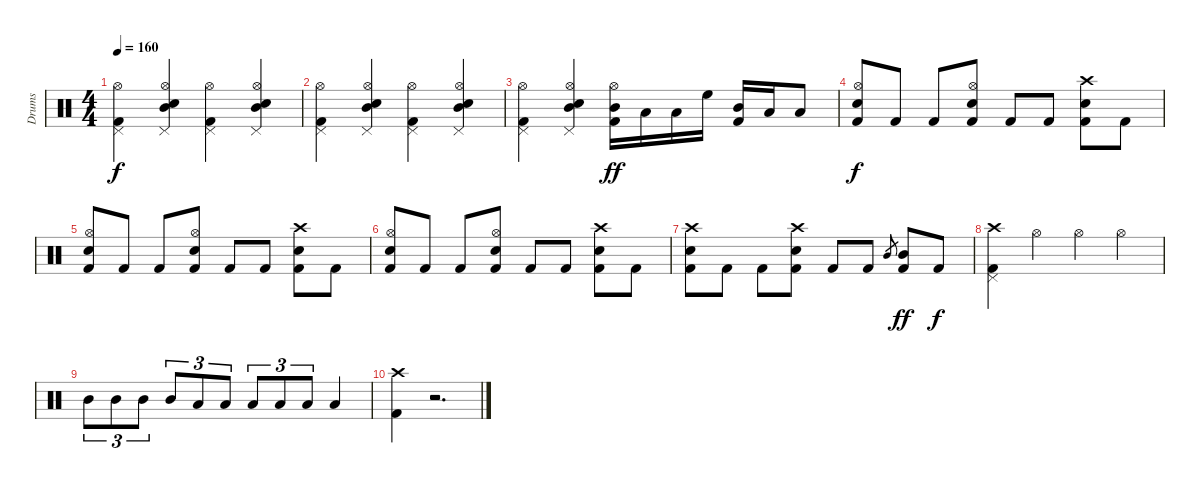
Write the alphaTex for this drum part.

\track ("Drums" "Drums") {instrument percussion}
\staff {score}
\articulation defaults
\ts (4 4)
\tempo 160
\clef neutral
\ks c
("Kick (hit) 2" "Pedal Hi-Hat (hit)" "Hi-Hat (open)").4{dy f} ("Snare (hit) 2" "Pedal Hi-Hat (hit)" "Mid Tom (hit)" "Hi-Hat (open)").4 ("Kick (hit) 2" "Pedal Hi-Hat (hit)" "Hi-Hat (open)").4 ("Snare (hit) 2" "Pedal Hi-Hat (hit)" "Mid Tom (hit)" "Hi-Hat (open)").4 |
("Kick (hit) 2" "Pedal Hi-Hat (hit)" "Hi-Hat (open)").4 ("Snare (hit) 2" "Pedal Hi-Hat (hit)" "Mid Tom (hit)" "Hi-Hat (open)").4 ("Kick (hit) 2" "Pedal Hi-Hat (hit)" "Hi-Hat (open)").4 ("Snare (hit) 2" "Pedal Hi-Hat (hit)" "Mid Tom (hit)" "Hi-Hat (open)").4 |
("Kick (hit) 2" "Pedal Hi-Hat (hit)" "Hi-Hat (open)").4 ("Snare (hit) 2" "Pedal Hi-Hat (hit)" "Mid Tom (hit)" "Hi-Hat (open)").4 ("Kick (hit) 2" "Mid Tom (hit)" "Hi-Hat (open)").16{dy ff} "Low Tom (hit)".16 "Low Tom (hit)".16 "High Floor Tom (hit)".16 ("Kick (hit) 2" "Mid Tom (hit)").16 "Low Tom (hit)".16 "Low Tom (hit)".8 |
("Kick (hit) 2" "Hi-Hat (open)" "Snare (hit) 2").8{dy f} "Kick (hit) 2".8 "Kick (hit) 2".8 ("Kick (hit) 2" "Hi-Hat (open)" "Snare (hit) 2").8 "Kick (hit) 2".8 "Kick (hit) 2".8 ("Kick (hit) 2" "Crash high (hit)" "Snare (hit) 2").8 "Kick (hit) 2".8 |
("Kick (hit) 2" "Hi-Hat (open)" "Snare (hit) 2").8 "Kick (hit) 2".8 "Kick (hit) 2".8 ("Kick (hit) 2" "Hi-Hat (open)" "Snare (hit) 2").8 "Kick (hit) 2".8 "Kick (hit) 2".8 ("Kick (hit) 2" "Crash high (hit)" "Snare (hit) 2").8 "Kick (hit) 2".8 |
("Kick (hit) 2" "Hi-Hat (open)" "Snare (hit) 2").8 "Kick (hit) 2".8 "Kick (hit) 2".8 ("Kick (hit) 2" "Hi-Hat (open)" "Snare (hit) 2").8 "Kick (hit) 2".8 "Kick (hit) 2".8 ("Kick (hit) 2" "Crash high (hit)" "Snare (hit) 2").8 "Kick (hit) 2".8 |
("Kick (hit) 2" "Crash high (hit)" "Snare (hit) 2").8 "Kick (hit) 2".8 "Kick (hit) 2".8 ("Kick (hit) 2" "Crash high (hit)" "Snare (hit) 2").8 "Kick (hit) 2".8 "Kick (hit) 2".8 "Mid Tom (hit)".8{gr} ("Kick (hit) 2" "Mid Tom (hit)").8{dy ff} "Kick (hit) 2".8{dy f} |
("Kick (hit) 2" "Pedal Hi-Hat (hit)" "Crash high (hit)").4 "Hi-Hat (open)".4 "Hi-Hat (open)".4 "Hi-Hat (open)".4 |
"Mid Tom (hit)".8{tu (3 2)} "Mid Tom (hit)".8{tu (3 2)} "Mid Tom (hit)".8{tu (3 2)} "Mid Tom (hit)".8{tu (3 2)} "Low Tom (hit)".8{tu (3 2)} "Low Tom (hit)".8{tu (3 2)} "Low Tom (hit)".8{tu (3 2)} "Low Tom (hit)".8{tu (3 2)} "Low Floor Tom (hit)".8{tu (3 2)} "Low Floor Tom (hit)".4 |
("Kick (hit) 2" "Crash high (hit)").4 r.2{d}
